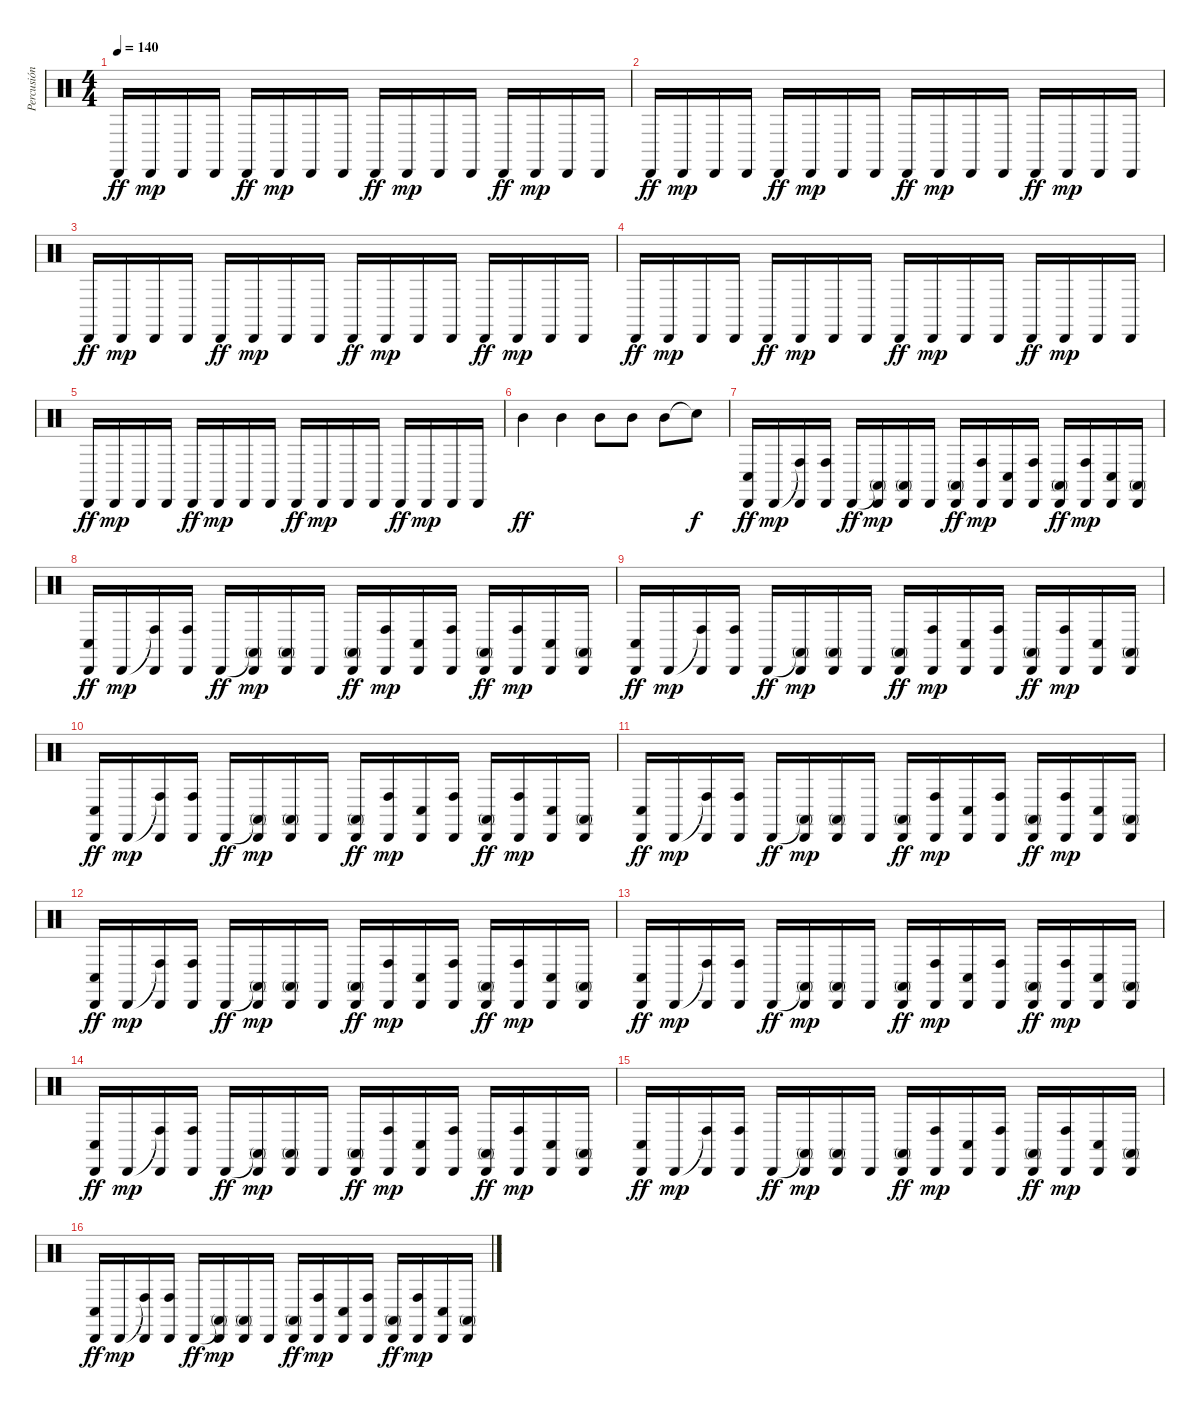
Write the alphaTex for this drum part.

\track ("Percusión" "Percusión") {instrument percussion}
\staff {score}
\articulation defaults
\ts (4 4)
\tempo 140
\clef neutral
\ks c "Cabasa (hit)".16{dy ff} "Cabasa (hit)".16{dy mp} "Cabasa (hit)".16 "Cabasa (hit)".16 "Cabasa (hit)".16{dy ff} "Cabasa (hit)".16{dy mp} "Cabasa (hit)".16 "Cabasa (hit)".16 "Cabasa (hit)".16{dy ff} "Cabasa (hit)".16{dy mp} "Cabasa (hit)".16 "Cabasa (hit)".16 "Cabasa (hit)".16{dy ff} "Cabasa (hit)".16{dy mp} "Cabasa (hit)".16 "Cabasa (hit)".16
|
"Cabasa (hit)".16{dy ff} "Cabasa (hit)".16{dy mp} "Cabasa (hit)".16 "Cabasa (hit)".16 "Cabasa (hit)".16{dy ff} "Cabasa (hit)".16{dy mp} "Cabasa (hit)".16 "Cabasa (hit)".16 "Cabasa (hit)".16{dy ff} "Cabasa (hit)".16{dy mp} "Cabasa (hit)".16 "Cabasa (hit)".16 "Cabasa (hit)".16{dy ff} "Cabasa (hit)".16{dy mp} "Cabasa (hit)".16 "Cabasa (hit)".16 |
"Cabasa (hit)".16{dy ff} "Cabasa (hit)".16{dy mp} "Cabasa (hit)".16 "Cabasa (hit)".16 "Cabasa (hit)".16{dy ff} "Cabasa (hit)".16{dy mp} "Cabasa (hit)".16 "Cabasa (hit)".16 "Cabasa (hit)".16{dy ff} "Cabasa (hit)".16{dy mp} "Cabasa (hit)".16 "Cabasa (hit)".16 "Cabasa (hit)".16{dy ff} "Cabasa (hit)".16{dy mp} "Cabasa (hit)".16 "Cabasa (hit)".16 |
"Cabasa (hit)".16{dy ff} "Cabasa (hit)".16{dy mp} "Cabasa (hit)".16 "Cabasa (hit)".16 "Cabasa (hit)".16{dy ff} "Cabasa (hit)".16{dy mp} "Cabasa (hit)".16 "Cabasa (hit)".16 "Cabasa (hit)".16{dy ff} "Cabasa (hit)".16{dy mp} "Cabasa (hit)".16 "Cabasa (hit)".16 "Cabasa (hit)".16{dy ff} "Cabasa (hit)".16{dy mp} "Cabasa (hit)".16 "Cabasa (hit)".16 |
"Cabasa (hit)".16{dy ff} "Cabasa (hit)".16{dy mp} "Cabasa (hit)".16 "Cabasa (hit)".16 "Cabasa (hit)".16{dy ff} "Cabasa (hit)".16{dy mp} "Cabasa (hit)".16 "Cabasa (hit)".16 "Cabasa (hit)".16{dy ff} "Cabasa (hit)".16{dy mp} "Cabasa (hit)".16 "Cabasa (hit)".16 "Cabasa (hit)".16{dy ff} "Cabasa (hit)".16{dy mp} "Cabasa (hit)".16 "Cabasa (hit)".16 |
"Mid Tom (hit)".4{dy ff} "Mid Tom (hit)".4 "Mid Tom (hit)".8 "Mid Tom (hit)".8 "Mid Tom (hit)".8 "Snare (hit)"{t}.8{dy f} |
("Conga low (hit)" "Cabasa (hit)").16{dy ff} "Cabasa (hit)".16{dy mp} ("Conga high (hit)"{t} "Cabasa (hit)").16 ("Conga high (hit)" "Cabasa (hit)").16 "Cabasa (hit)".16{dy ff} ("Conga high (mute)"{t} "Cabasa (hit)").16{dy mp} ("Conga high (mute)" "Cabasa (hit)").16 "Cabasa (hit)".16 ("Conga high (mute)" "Cabasa (hit)").16{dy ff} ("Conga high (hit)" "Cabasa (hit)").16{dy mp} ("Conga low (hit)" "Cabasa (hit)").16 ("Conga high (hit)" "Cabasa (hit)").16 ("Conga high (mute)" "Cabasa (hit)").16{dy ff} ("Conga high (hit)" "Cabasa (hit)").16{dy mp} ("Conga low (hit)" "Cabasa (hit)").16 ("Conga high (mute)" "Cabasa (hit)").16 |
("Conga low (hit)" "Cabasa (hit)").16{dy ff} "Cabasa (hit)".16{dy mp} ("Conga high (hit)"{t} "Cabasa (hit)").16 ("Conga high (hit)" "Cabasa (hit)").16 "Cabasa (hit)".16{dy ff} ("Conga high (mute)"{t} "Cabasa (hit)").16{dy mp} ("Conga high (mute)" "Cabasa (hit)").16 "Cabasa (hit)".16 ("Conga high (mute)" "Cabasa (hit)").16{dy ff} ("Conga high (hit)" "Cabasa (hit)").16{dy mp} ("Conga low (hit)" "Cabasa (hit)").16 ("Conga high (hit)" "Cabasa (hit)").16 ("Conga high (mute)" "Cabasa (hit)").16{dy ff} ("Conga high (hit)" "Cabasa (hit)").16{dy mp} ("Conga low (hit)" "Cabasa (hit)").16 ("Conga high (mute)" "Cabasa (hit)").16 |
("Conga low (hit)" "Cabasa (hit)").16{dy ff} "Cabasa (hit)".16{dy mp} ("Conga high (hit)"{t} "Cabasa (hit)").16 ("Conga high (hit)" "Cabasa (hit)").16 "Cabasa (hit)".16{dy ff} ("Conga high (mute)"{t} "Cabasa (hit)").16{dy mp} ("Conga high (mute)" "Cabasa (hit)").16 "Cabasa (hit)".16 ("Conga high (mute)" "Cabasa (hit)").16{dy ff} ("Conga high (hit)" "Cabasa (hit)").16{dy mp} ("Conga low (hit)" "Cabasa (hit)").16 ("Conga high (hit)" "Cabasa (hit)").16 ("Conga high (mute)" "Cabasa (hit)").16{dy ff} ("Conga high (hit)" "Cabasa (hit)").16{dy mp} ("Conga low (hit)" "Cabasa (hit)").16 ("Conga high (mute)" "Cabasa (hit)").16 |
("Conga low (hit)" "Cabasa (hit)").16{dy ff} "Cabasa (hit)".16{dy mp} ("Conga high (hit)"{t} "Cabasa (hit)").16 ("Conga high (hit)" "Cabasa (hit)").16 "Cabasa (hit)".16{dy ff} ("Conga high (mute)"{t} "Cabasa (hit)").16{dy mp} ("Conga high (mute)" "Cabasa (hit)").16 "Cabasa (hit)".16 ("Conga high (mute)" "Cabasa (hit)").16{dy ff} ("Conga high (hit)" "Cabasa (hit)").16{dy mp} ("Conga low (hit)" "Cabasa (hit)").16 ("Conga high (hit)" "Cabasa (hit)").16 ("Conga high (mute)" "Cabasa (hit)").16{dy ff} ("Conga high (hit)" "Cabasa (hit)").16{dy mp} ("Conga low (hit)" "Cabasa (hit)").16 ("Conga high (mute)" "Cabasa (hit)").16 |
("Conga low (hit)" "Cabasa (hit)").16{dy ff} "Cabasa (hit)".16{dy mp} ("Conga high (hit)"{t} "Cabasa (hit)").16 ("Conga high (hit)" "Cabasa (hit)").16 "Cabasa (hit)".16{dy ff} ("Conga high (mute)"{t} "Cabasa (hit)").16{dy mp} ("Conga high (mute)" "Cabasa (hit)").16 "Cabasa (hit)".16 ("Conga high (mute)" "Cabasa (hit)").16{dy ff} ("Conga high (hit)" "Cabasa (hit)").16{dy mp} ("Conga low (hit)" "Cabasa (hit)").16 ("Conga high (hit)" "Cabasa (hit)").16 ("Conga high (mute)" "Cabasa (hit)").16{dy ff} ("Conga high (hit)" "Cabasa (hit)").16{dy mp} ("Conga low (hit)" "Cabasa (hit)").16 ("Conga high (mute)" "Cabasa (hit)").16 |
("Conga low (hit)" "Cabasa (hit)").16{dy ff} "Cabasa (hit)".16{dy mp} ("Conga high (hit)"{t} "Cabasa (hit)").16 ("Conga high (hit)" "Cabasa (hit)").16 "Cabasa (hit)".16{dy ff} ("Conga high (mute)"{t} "Cabasa (hit)").16{dy mp} ("Conga high (mute)" "Cabasa (hit)").16 "Cabasa (hit)".16 ("Conga high (mute)" "Cabasa (hit)").16{dy ff} ("Conga high (hit)" "Cabasa (hit)").16{dy mp} ("Conga low (hit)" "Cabasa (hit)").16 ("Conga high (hit)" "Cabasa (hit)").16 ("Conga high (mute)" "Cabasa (hit)").16{dy ff} ("Conga high (hit)" "Cabasa (hit)").16{dy mp} ("Conga low (hit)" "Cabasa (hit)").16 ("Conga high (mute)" "Cabasa (hit)").16 |
("Conga low (hit)" "Cabasa (hit)").16{dy ff} "Cabasa (hit)".16{dy mp} ("Conga high (hit)"{t} "Cabasa (hit)").16 ("Conga high (hit)" "Cabasa (hit)").16 "Cabasa (hit)".16{dy ff} ("Conga high (mute)"{t} "Cabasa (hit)").16{dy mp} ("Conga high (mute)" "Cabasa (hit)").16 "Cabasa (hit)".16 ("Conga high (mute)" "Cabasa (hit)").16{dy ff} ("Conga high (hit)" "Cabasa (hit)").16{dy mp} ("Conga low (hit)" "Cabasa (hit)").16 ("Conga high (hit)" "Cabasa (hit)").16 ("Conga high (mute)" "Cabasa (hit)").16{dy ff} ("Conga high (hit)" "Cabasa (hit)").16{dy mp} ("Conga low (hit)" "Cabasa (hit)").16 ("Conga high (mute)" "Cabasa (hit)").16 |
("Conga low (hit)" "Cabasa (hit)").16{dy ff} "Cabasa (hit)".16{dy mp} ("Conga high (hit)"{t} "Cabasa (hit)").16 ("Conga high (hit)" "Cabasa (hit)").16 "Cabasa (hit)".16{dy ff} ("Conga high (mute)"{t} "Cabasa (hit)").16{dy mp} ("Conga high (mute)" "Cabasa (hit)").16 "Cabasa (hit)".16 ("Conga high (mute)" "Cabasa (hit)").16{dy ff} ("Conga high (hit)" "Cabasa (hit)").16{dy mp} ("Conga low (hit)" "Cabasa (hit)").16 ("Conga high (hit)" "Cabasa (hit)").16 ("Conga high (mute)" "Cabasa (hit)").16{dy ff} ("Conga high (hit)" "Cabasa (hit)").16{dy mp} ("Conga low (hit)" "Cabasa (hit)").16 ("Conga high (mute)" "Cabasa (hit)").16 |
("Conga low (hit)" "Cabasa (hit)").16{dy ff} "Cabasa (hit)".16{dy mp} ("Conga high (hit)"{t} "Cabasa (hit)").16 ("Conga high (hit)" "Cabasa (hit)").16 "Cabasa (hit)".16{dy ff} ("Conga high (mute)"{t} "Cabasa (hit)").16{dy mp} ("Conga high (mute)" "Cabasa (hit)").16 "Cabasa (hit)".16 ("Conga high (mute)" "Cabasa (hit)").16{dy ff} ("Conga high (hit)" "Cabasa (hit)").16{dy mp} ("Conga low (hit)" "Cabasa (hit)").16 ("Conga high (hit)" "Cabasa (hit)").16 ("Conga high (mute)" "Cabasa (hit)").16{dy ff} ("Conga high (hit)" "Cabasa (hit)").16{dy mp} ("Conga low (hit)" "Cabasa (hit)").16 ("Conga high (mute)" "Cabasa (hit)").16 |
("Conga low (hit)" "Cabasa (hit)").16{dy ff} "Cabasa (hit)".16{dy mp} ("Conga high (hit)"{t} "Cabasa (hit)").16 ("Conga high (hit)" "Cabasa (hit)").16 "Cabasa (hit)".16{dy ff} ("Conga high (mute)"{t} "Cabasa (hit)").16{dy mp} ("Conga high (mute)" "Cabasa (hit)").16 "Cabasa (hit)".16 ("Conga high (mute)" "Cabasa (hit)").16{dy ff} ("Conga high (hit)" "Cabasa (hit)").16{dy mp} ("Conga low (hit)" "Cabasa (hit)").16 ("Conga high (hit)" "Cabasa (hit)").16 ("Conga high (mute)" "Cabasa (hit)").16{dy ff} ("Conga high (hit)" "Cabasa (hit)").16{dy mp} ("Conga low (hit)" "Cabasa (hit)").16 ("Conga high (mute)" "Cabasa (hit)").16
